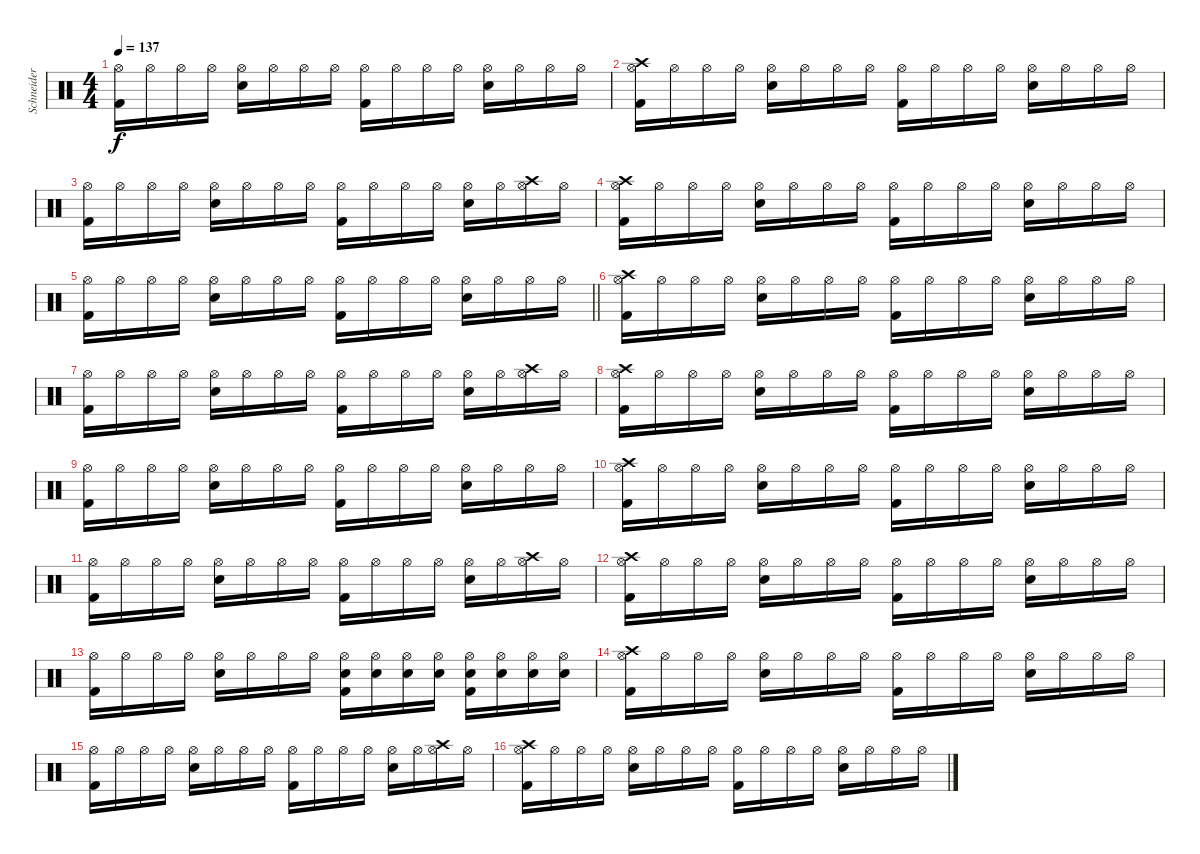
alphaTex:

\track ("Schneider" "Schneider") {instrument percussion}
\staff {score}
\articulation defaults
\ts (4 4)
\tempo 137
\clef neutral
\ks c
("Hi-Hat (open)" "Kick (hit) 2").16{dy f} "Hi-Hat (open)".16 "Hi-Hat (open)".16 "Hi-Hat (open)".16 ("Hi-Hat (open)" "Electric Snare (hit)").16 "Hi-Hat (open)".16 "Hi-Hat (open)".16 "Hi-Hat (open)".16 ("Hi-Hat (open)" "Kick (hit) 2").16 "Hi-Hat (open)".16 "Hi-Hat (open)".16 "Hi-Hat (open)".16 ("Hi-Hat (open)" "Electric Snare (hit)").16 "Hi-Hat (open)".16 "Hi-Hat (open)".16 "Hi-Hat (open)".16 |
("Crash high (hit)" "Hi-Hat (open)" "Kick (hit) 2").16 "Hi-Hat (open)".16 "Hi-Hat (open)".16 "Hi-Hat (open)".16 ("Hi-Hat (open)" "Electric Snare (hit)").16 "Hi-Hat (open)".16 "Hi-Hat (open)".16 "Hi-Hat (open)".16 ("Hi-Hat (open)" "Kick (hit) 2").16 "Hi-Hat (open)".16 "Hi-Hat (open)".16 "Hi-Hat (open)".16 ("Hi-Hat (open)" "Electric Snare (hit)").16 "Hi-Hat (open)".16 "Hi-Hat (open)".16 "Hi-Hat (open)".16 |
("Hi-Hat (open)" "Kick (hit) 2").16 "Hi-Hat (open)".16 "Hi-Hat (open)".16 "Hi-Hat (open)".16 ("Hi-Hat (open)" "Electric Snare (hit)").16 "Hi-Hat (open)".16 "Hi-Hat (open)".16 "Hi-Hat (open)".16 ("Hi-Hat (open)" "Kick (hit) 2").16 "Hi-Hat (open)".16 "Hi-Hat (open)".16 "Hi-Hat (open)".16 ("Hi-Hat (open)" "Electric Snare (hit)").16 "Hi-Hat (open)".16 ("Crash high (hit)" "Hi-Hat (open)").16 "Hi-Hat (open)".16 |
("Crash high (hit)" "Hi-Hat (open)" "Kick (hit) 2").16 "Hi-Hat (open)".16 "Hi-Hat (open)".16 "Hi-Hat (open)".16 ("Hi-Hat (open)" "Electric Snare (hit)").16 "Hi-Hat (open)".16 "Hi-Hat (open)".16 "Hi-Hat (open)".16 ("Hi-Hat (open)" "Kick (hit) 2").16 "Hi-Hat (open)".16 "Hi-Hat (open)".16 "Hi-Hat (open)".16 ("Hi-Hat (open)" "Electric Snare (hit)").16 "Hi-Hat (open)".16 "Hi-Hat (open)".16 "Hi-Hat (open)".16 |
\barLineRight lightlight
("Hi-Hat (open)" "Kick (hit) 2").16 "Hi-Hat (open)".16 "Hi-Hat (open)".16 "Hi-Hat (open)".16 ("Hi-Hat (open)" "Electric Snare (hit)").16 "Hi-Hat (open)".16 "Hi-Hat (open)".16 "Hi-Hat (open)".16 ("Hi-Hat (open)" "Kick (hit) 2").16 "Hi-Hat (open)".16 "Hi-Hat (open)".16 "Hi-Hat (open)".16 ("Hi-Hat (open)" "Electric Snare (hit)").16 "Hi-Hat (open)".16 "Hi-Hat (open)".16 "Hi-Hat (open)".16 |
("Crash high (hit)" "Hi-Hat (open)" "Kick (hit) 2").16 "Hi-Hat (open)".16 "Hi-Hat (open)".16 "Hi-Hat (open)".16 ("Hi-Hat (open)" "Electric Snare (hit)").16 "Hi-Hat (open)".16 "Hi-Hat (open)".16 "Hi-Hat (open)".16 ("Hi-Hat (open)" "Kick (hit) 2").16 "Hi-Hat (open)".16 "Hi-Hat (open)".16 "Hi-Hat (open)".16 ("Hi-Hat (open)" "Electric Snare (hit)").16 "Hi-Hat (open)".16 "Hi-Hat (open)".16 "Hi-Hat (open)".16 |
("Hi-Hat (open)" "Kick (hit) 2").16 "Hi-Hat (open)".16 "Hi-Hat (open)".16 "Hi-Hat (open)".16 ("Hi-Hat (open)" "Electric Snare (hit)").16 "Hi-Hat (open)".16 "Hi-Hat (open)".16 "Hi-Hat (open)".16 ("Hi-Hat (open)" "Kick (hit) 2").16 "Hi-Hat (open)".16 "Hi-Hat (open)".16 "Hi-Hat (open)".16 ("Hi-Hat (open)" "Electric Snare (hit)").16 "Hi-Hat (open)".16 ("Crash high (hit)" "Hi-Hat (open)").16 "Hi-Hat (open)".16 |
("Crash high (hit)" "Hi-Hat (open)" "Kick (hit) 2").16 "Hi-Hat (open)".16 "Hi-Hat (open)".16 "Hi-Hat (open)".16 ("Hi-Hat (open)" "Electric Snare (hit)").16 "Hi-Hat (open)".16 "Hi-Hat (open)".16 "Hi-Hat (open)".16 ("Hi-Hat (open)" "Kick (hit) 2").16 "Hi-Hat (open)".16 "Hi-Hat (open)".16 "Hi-Hat (open)".16 ("Hi-Hat (open)" "Electric Snare (hit)").16 "Hi-Hat (open)".16 "Hi-Hat (open)".16 "Hi-Hat (open)".16 |
("Hi-Hat (open)" "Kick (hit) 2").16 "Hi-Hat (open)".16 "Hi-Hat (open)".16 "Hi-Hat (open)".16 ("Hi-Hat (open)" "Electric Snare (hit)").16 "Hi-Hat (open)".16 "Hi-Hat (open)".16 "Hi-Hat (open)".16 ("Hi-Hat (open)" "Kick (hit) 2").16 "Hi-Hat (open)".16 "Hi-Hat (open)".16 "Hi-Hat (open)".16 ("Hi-Hat (open)" "Electric Snare (hit)").16 "Hi-Hat (open)".16 "Hi-Hat (open)".16 "Hi-Hat (open)".16 |
("Crash high (hit)" "Hi-Hat (open)" "Kick (hit) 2").16 "Hi-Hat (open)".16 "Hi-Hat (open)".16 "Hi-Hat (open)".16 ("Hi-Hat (open)" "Electric Snare (hit)").16 "Hi-Hat (open)".16 "Hi-Hat (open)".16 "Hi-Hat (open)".16 ("Hi-Hat (open)" "Kick (hit) 2").16 "Hi-Hat (open)".16 "Hi-Hat (open)".16 "Hi-Hat (open)".16 ("Hi-Hat (open)" "Electric Snare (hit)").16 "Hi-Hat (open)".16 "Hi-Hat (open)".16 "Hi-Hat (open)".16 |
("Hi-Hat (open)" "Kick (hit) 2").16 "Hi-Hat (open)".16 "Hi-Hat (open)".16 "Hi-Hat (open)".16 ("Hi-Hat (open)" "Electric Snare (hit)").16 "Hi-Hat (open)".16 "Hi-Hat (open)".16 "Hi-Hat (open)".16 ("Hi-Hat (open)" "Kick (hit) 2").16 "Hi-Hat (open)".16 "Hi-Hat (open)".16 "Hi-Hat (open)".16 ("Hi-Hat (open)" "Electric Snare (hit)").16 "Hi-Hat (open)".16 ("Crash high (hit)" "Hi-Hat (open)").16 "Hi-Hat (open)".16 |
("Crash high (hit)" "Hi-Hat (open)" "Kick (hit) 2").16 "Hi-Hat (open)".16 "Hi-Hat (open)".16 "Hi-Hat (open)".16 ("Hi-Hat (open)" "Electric Snare (hit)").16 "Hi-Hat (open)".16 "Hi-Hat (open)".16 "Hi-Hat (open)".16 ("Hi-Hat (open)" "Kick (hit) 2").16 "Hi-Hat (open)".16 "Hi-Hat (open)".16 "Hi-Hat (open)".16 ("Hi-Hat (open)" "Electric Snare (hit)").16 "Hi-Hat (open)".16 "Hi-Hat (open)".16 "Hi-Hat (open)".16 |
("Hi-Hat (open)" "Kick (hit) 2").16 "Hi-Hat (open)".16 "Hi-Hat (open)".16 "Hi-Hat (open)".16 ("Hi-Hat (open)" "Electric Snare (hit)").16 "Hi-Hat (open)".16 "Hi-Hat (open)".16 "Hi-Hat (open)".16 ("Hi-Hat (open)" "Electric Snare (hit)" "Kick (hit) 2").16 ("Hi-Hat (open)" "Electric Snare (hit)").16 ("Hi-Hat (open)" "Electric Snare (hit)").16 ("Hi-Hat (open)" "Electric Snare (hit)").16 ("Hi-Hat (open)" "Electric Snare (hit)" "Kick (hit) 2").16 ("Hi-Hat (open)" "Electric Snare (hit)").16 ("Hi-Hat (open)" "Electric Snare (hit)").16 ("Hi-Hat (open)" "Electric Snare (hit)").16 |
("Crash high (hit)" "Hi-Hat (open)" "Kick (hit) 2").16 "Hi-Hat (open)".16 "Hi-Hat (open)".16 "Hi-Hat (open)".16 ("Hi-Hat (open)" "Electric Snare (hit)").16 "Hi-Hat (open)".16 "Hi-Hat (open)".16 "Hi-Hat (open)".16 ("Hi-Hat (open)" "Kick (hit) 2").16 "Hi-Hat (open)".16 "Hi-Hat (open)".16 "Hi-Hat (open)".16 ("Hi-Hat (open)" "Electric Snare (hit)").16 "Hi-Hat (open)".16 "Hi-Hat (open)".16 "Hi-Hat (open)".16 |
("Hi-Hat (open)" "Kick (hit) 2").16 "Hi-Hat (open)".16 "Hi-Hat (open)".16 "Hi-Hat (open)".16 ("Hi-Hat (open)" "Electric Snare (hit)").16 "Hi-Hat (open)".16 "Hi-Hat (open)".16 "Hi-Hat (open)".16 ("Hi-Hat (open)" "Kick (hit) 2").16 "Hi-Hat (open)".16 "Hi-Hat (open)".16 "Hi-Hat (open)".16 ("Hi-Hat (open)" "Electric Snare (hit)").16 "Hi-Hat (open)".16 ("Crash high (hit)" "Hi-Hat (open)").16 "Hi-Hat (open)".16 |
("Crash high (hit)" "Hi-Hat (open)" "Kick (hit) 2").16 "Hi-Hat (open)".16 "Hi-Hat (open)".16 "Hi-Hat (open)".16 ("Hi-Hat (open)" "Electric Snare (hit)").16 "Hi-Hat (open)".16 "Hi-Hat (open)".16 "Hi-Hat (open)".16 ("Hi-Hat (open)" "Kick (hit) 2").16 "Hi-Hat (open)".16 "Hi-Hat (open)".16 "Hi-Hat (open)".16 ("Hi-Hat (open)" "Electric Snare (hit)").16 "Hi-Hat (open)".16 "Hi-Hat (open)".16 "Hi-Hat (open)".16
